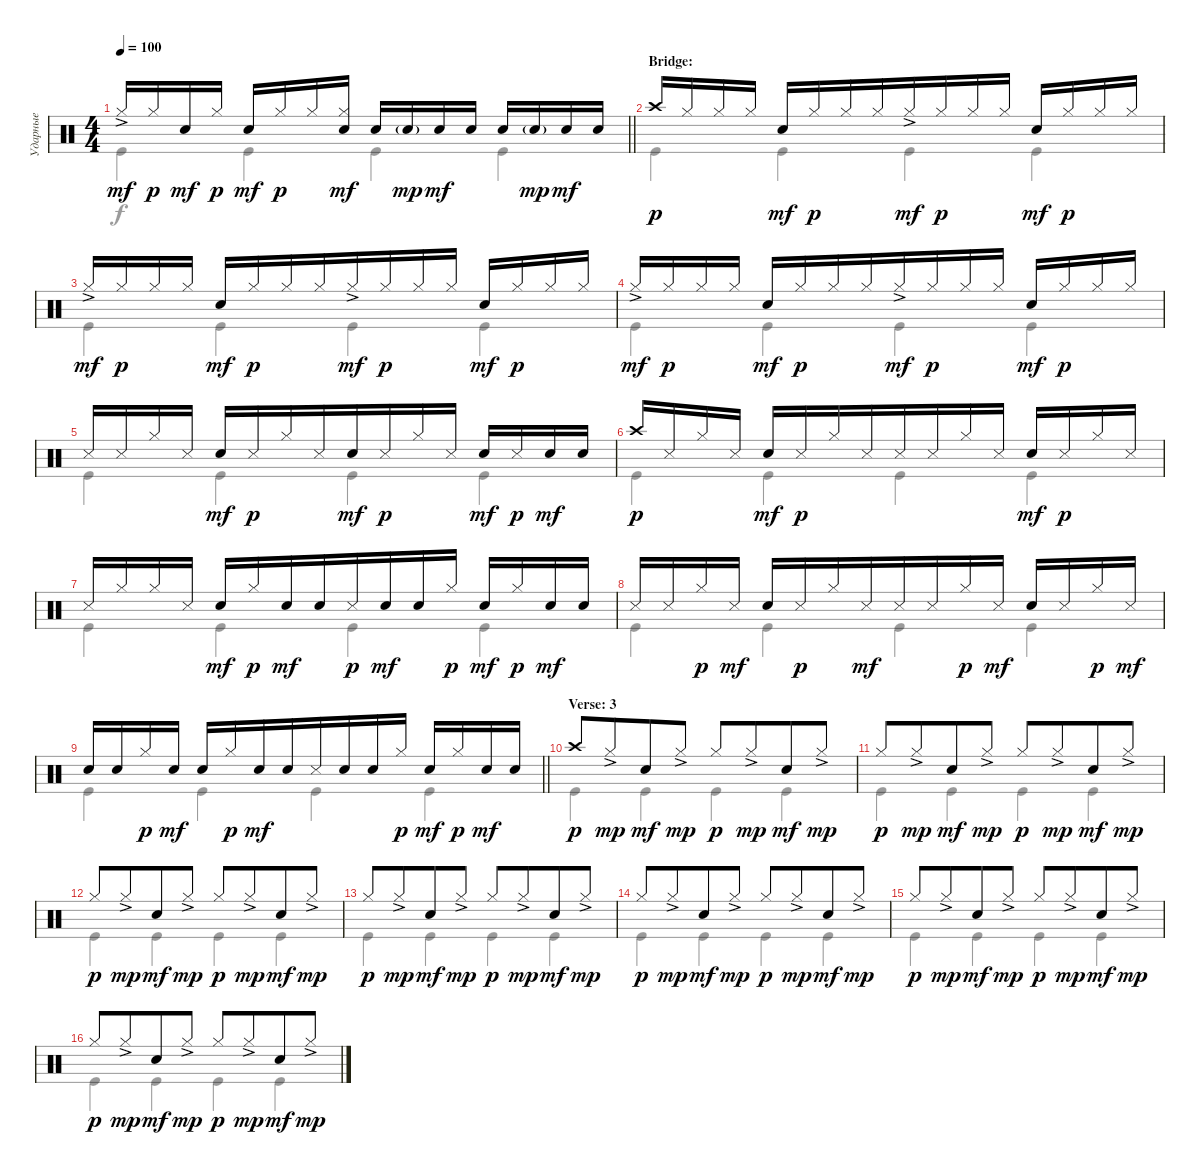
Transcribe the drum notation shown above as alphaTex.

\track ("Ударные" "Ударные") {instrument percussion}
\staff {score}
\articulation defaults
\voice
\ts (4 4)
\tempo 100
\clef neutral
\barLineRight lightlight
\ks c "Hi-Hat (closed)"{ac}.16{dy mf} "Hi-Hat (closed)".16{dy p} "Snare (hit) 2".16{dy mf} "Hi-Hat (closed)".16{dy p} "Snare (hit) 2".16{dy mf} "Hi-Hat (closed)".16{dy p} "Hi-Hat (closed)".16
("Hi-Hat (closed)" "Snare (hit) 2").16{dy mf} "Snare (hit) 2".16 "Snare (hit) 2"{g}.16{dy mp} "Snare (hit) 2".16{dy mf} "Snare (hit) 2".16 "Snare (hit) 2".16 "Snare (hit) 2"{g}.16{dy mp} "Snare (hit) 2".16{dy mf} "Snare (hit) 2".16 |
\section ("" "Bridge:")
"Crash high (hit)".16{dy p} "Hi-Hat (closed)".16 "Hi-Hat (closed)".16 "Hi-Hat (closed)".16 "Snare (hit) 2".16{dy mf} "Hi-Hat (closed)".16{dy p} "Hi-Hat (closed)".16 "Hi-Hat (closed)".16{beam merge} "Hi-Hat (closed)"{ac}.16{dy mf} "Hi-Hat (closed)".16{dy p} "Hi-Hat (closed)".16 "Hi-Hat (closed)".16 "Snare (hit) 2".16{dy mf} "Hi-Hat (closed)".16{dy p} "Hi-Hat (closed)".16 "Hi-Hat (closed)".16 |
"Hi-Hat (closed)"{ac}.16{dy mf} "Hi-Hat (closed)".16{dy p} "Hi-Hat (closed)".16 "Hi-Hat (closed)".16 "Snare (hit) 2".16{dy mf} "Hi-Hat (closed)".16{dy p} "Hi-Hat (closed)".16 "Hi-Hat (closed)".16{beam merge} "Hi-Hat (closed)"{ac}.16{dy mf} "Hi-Hat (closed)".16{dy p} "Hi-Hat (closed)".16 "Hi-Hat (closed)".16 "Snare (hit) 2".16{dy mf} "Hi-Hat (closed)".16{dy p} "Hi-Hat (closed)".16 "Hi-Hat (closed)".16 |
"Hi-Hat (closed)"{ac}.16{dy mf} "Hi-Hat (closed)".16{dy p} "Hi-Hat (closed)".16 "Hi-Hat (closed)".16 "Snare (hit) 2".16{dy mf} "Hi-Hat (closed)".16{dy p} "Hi-Hat (closed)".16 "Hi-Hat (closed)".16{beam merge} "Hi-Hat (closed)"{ac}.16{dy mf} "Hi-Hat (closed)".16{dy p} "Hi-Hat (closed)".16 "Hi-Hat (closed)".16 "Snare (hit) 2".16{dy mf} "Hi-Hat (closed)".16{dy p} "Hi-Hat (closed)".16 "Hi-Hat (closed)".16 |
"Snare (side stick) 3".16 "Snare (side stick) 3".16{beam merge} "Hi-Hat (closed)".16 "Snare (side stick) 3".16 "Snare (hit) 2".16{dy mf} "Snare (side stick) 3".16{dy p} "Hi-Hat (closed)".16 "Snare (side stick) 3".16{beam merge} "Snare (hit) 2".16{dy mf} "Snare (side stick) 3".16{dy p} "Hi-Hat (closed)".16 "Snare (side stick) 3".16 "Snare (hit) 2".16{dy mf} "Snare (side stick) 3".16{dy p} "Snare (hit) 2".16{dy mf} "Snare (hit) 2".16 |
"Crash high (hit)".16{dy p} "Snare (side stick) 3".16{beam merge} "Hi-Hat (closed)".16 "Snare (side stick) 3".16 "Snare (hit) 2".16{dy mf} "Snare (side stick) 3".16{dy p} "Hi-Hat (closed)".16 "Snare (side stick) 3".16{beam merge} "Snare (side stick) 3".16 "Snare (side stick) 3".16 "Hi-Hat (closed)".16 "Snare (side stick) 3".16 "Snare (hit) 2".16{dy mf} "Snare (side stick) 3".16{dy p} "Hi-Hat (closed)".16 "Snare (side stick) 3".16 |
"Snare (side stick) 3".16 "Hi-Hat (closed)".16{beam merge} "Hi-Hat (closed)".16 "Snare (side stick) 3".16 "Snare (hit) 2".16{dy mf} "Hi-Hat (closed)".16{dy p} "Snare (hit) 2".16{dy mf} "Snare (hit) 2".16{beam merge} "Snare (side stick) 3".16{dy p} "Snare (hit) 2".16{dy mf} "Snare (hit) 2".16 "Hi-Hat (closed)".16{dy p} "Snare (hit) 2".16{dy mf} "Hi-Hat (closed)".16{dy p} "Snare (hit) 2".16{dy mf} "Snare (hit) 2".16 |
"Snare (side stick) 3".16 "Snare (side stick) 3".16{beam merge} "Hi-Hat (closed)".16{dy p} "Snare (side stick) 3".16{dy mf} "Snare (hit) 2".16 "Snare (side stick) 3".16{dy p} "Hi-Hat (closed)".16 "Snare (side stick) 3".16{dy mf beam merge} "Snare (side stick) 3".16 "Snare (side stick) 3".16 "Hi-Hat (closed)".16{dy p} "Snare (side stick) 3".16{dy mf} "Snare (hit) 2".16 "Snare (side stick) 3".16 "Hi-Hat (closed)".16{dy p} "Snare (side stick) 3".16{dy mf} |
\barLineRight lightlight "Snare (hit) 2".16 "Snare (hit) 2".16{beam merge} "Hi-Hat (closed)".16{dy p} "Snare (hit) 2".16{dy mf} "Snare (hit) 2".16 "Hi-Hat (closed)".16{dy p} "Snare (hit) 2".16{dy mf} "Snare (hit) 2".16{beam merge} "Snare (side stick) 3".16 "Snare (hit) 2".16 "Snare (hit) 2".16 "Hi-Hat (closed)".16{dy p} "Snare (hit) 2".16{dy mf} "Hi-Hat (closed)".16{dy p} "Snare (hit) 2".16{dy mf} "Snare (hit) 2".16
|
\section ("" "Verse: 3")
"Crash high (hit)".8{dy p} "Hi-Hat (closed)"{ac}.8{dy mp beam merge} "Snare (hit) 2".8{dy mf} "Hi-Hat (closed)"{ac}.8{dy mp} "Hi-Hat (closed)".8{dy p} "Hi-Hat (closed)"{ac}.8{dy mp beam merge} "Snare (hit) 2".8{dy mf} "Hi-Hat (closed)"{ac}.8{dy mp} |
"Hi-Hat (closed)".8{dy p} "Hi-Hat (closed)"{ac}.8{dy mp beam merge} "Snare (hit) 2".8{dy mf} "Hi-Hat (closed)"{ac}.8{dy mp} "Hi-Hat (closed)".8{dy p} "Hi-Hat (closed)"{ac}.8{dy mp beam merge} "Snare (hit) 2".8{dy mf} "Hi-Hat (closed)"{ac}.8{dy mp} |
"Hi-Hat (closed)".8{dy p} "Hi-Hat (closed)"{ac}.8{dy mp beam merge} "Snare (hit) 2".8{dy mf} "Hi-Hat (closed)"{ac}.8{dy mp} "Hi-Hat (closed)".8{dy p} "Hi-Hat (closed)"{ac}.8{dy mp beam merge} "Snare (hit) 2".8{dy mf} "Hi-Hat (closed)"{ac}.8{dy mp} |
"Hi-Hat (closed)".8{dy p} "Hi-Hat (closed)"{ac}.8{dy mp beam merge} "Snare (hit) 2".8{dy mf} "Hi-Hat (closed)"{ac}.8{dy mp} "Hi-Hat (closed)".8{dy p} "Hi-Hat (closed)"{ac}.8{dy mp beam merge} "Snare (hit) 2".8{dy mf} "Hi-Hat (closed)"{ac}.8{dy mp} |
"Hi-Hat (closed)".8{dy p} "Hi-Hat (closed)"{ac}.8{dy mp beam merge} "Snare (hit) 2".8{dy mf} "Hi-Hat (closed)"{ac}.8{dy mp} "Hi-Hat (closed)".8{dy p} "Hi-Hat (closed)"{ac}.8{dy mp beam merge} "Snare (hit) 2".8{dy mf} "Hi-Hat (closed)"{ac}.8{dy mp} |
"Hi-Hat (closed)".8{dy p} "Hi-Hat (closed)"{ac}.8{dy mp beam merge} "Snare (hit) 2".8{dy mf} "Hi-Hat (closed)"{ac}.8{dy mp} "Hi-Hat (closed)".8{dy p} "Hi-Hat (closed)"{ac}.8{dy mp beam merge} "Snare (hit) 2".8{dy mf} "Hi-Hat (closed)"{ac}.8{dy mp} |
"Hi-Hat (closed)".8{dy p} "Hi-Hat (closed)"{ac}.8{dy mp beam merge} "Snare (hit) 2".8{dy mf} "Hi-Hat (closed)"{ac}.8{dy mp} "Hi-Hat (closed)".8{dy p} "Hi-Hat (closed)"{ac}.8{dy mp beam merge} "Snare (hit) 2".8{dy mf} "Hi-Hat (closed)"{ac}.8{dy mp}
\voice
\clef neutral
\ottava regular
\simile none
\barLineRight lightlight
\ks c "Kick (hit)".4{dy f} "Kick (hit)".4 "Kick (hit)".4 "Kick (hit)".4
|
"Kick (hit)".4 "Kick (hit)".4 "Kick (hit)".4 "Kick (hit)".4 |
"Kick (hit)".4 "Kick (hit)".4 "Kick (hit)".4 "Kick (hit)".4 |
"Kick (hit)".4 "Kick (hit)".4 "Kick (hit)".4 "Kick (hit)".4 |
"Kick (hit)".4 "Kick (hit)".4 "Kick (hit)".4 "Kick (hit)".4 |
"Kick (hit)".4 "Kick (hit)".4 "Kick (hit)".4 "Kick (hit)".4 |
"Kick (hit)".4 "Kick (hit)".4 "Kick (hit)".4 "Kick (hit)".4 |
"Kick (hit)".4 "Kick (hit)".4 "Kick (hit)".4 "Kick (hit)".4 |
\barLineRight lightlight "Kick (hit)".4 "Kick (hit)".4 "Kick (hit)".4 "Kick (hit)".4
|
"Kick (hit)".4 "Kick (hit)".4 "Kick (hit)".4 "Kick (hit)".4 |
"Kick (hit)".4 "Kick (hit)".4 "Kick (hit)".4 "Kick (hit)".4 |
"Kick (hit)".4 "Kick (hit)".4 "Kick (hit)".4 "Kick (hit)".4 |
"Kick (hit)".4 "Kick (hit)".4 "Kick (hit)".4 "Kick (hit)".4 |
"Kick (hit)".4 "Kick (hit)".4 "Kick (hit)".4 "Kick (hit)".4 |
"Kick (hit)".4 "Kick (hit)".4 "Kick (hit)".4 "Kick (hit)".4 |
"Kick (hit)".4 "Kick (hit)".4 "Kick (hit)".4 "Kick (hit)".4
